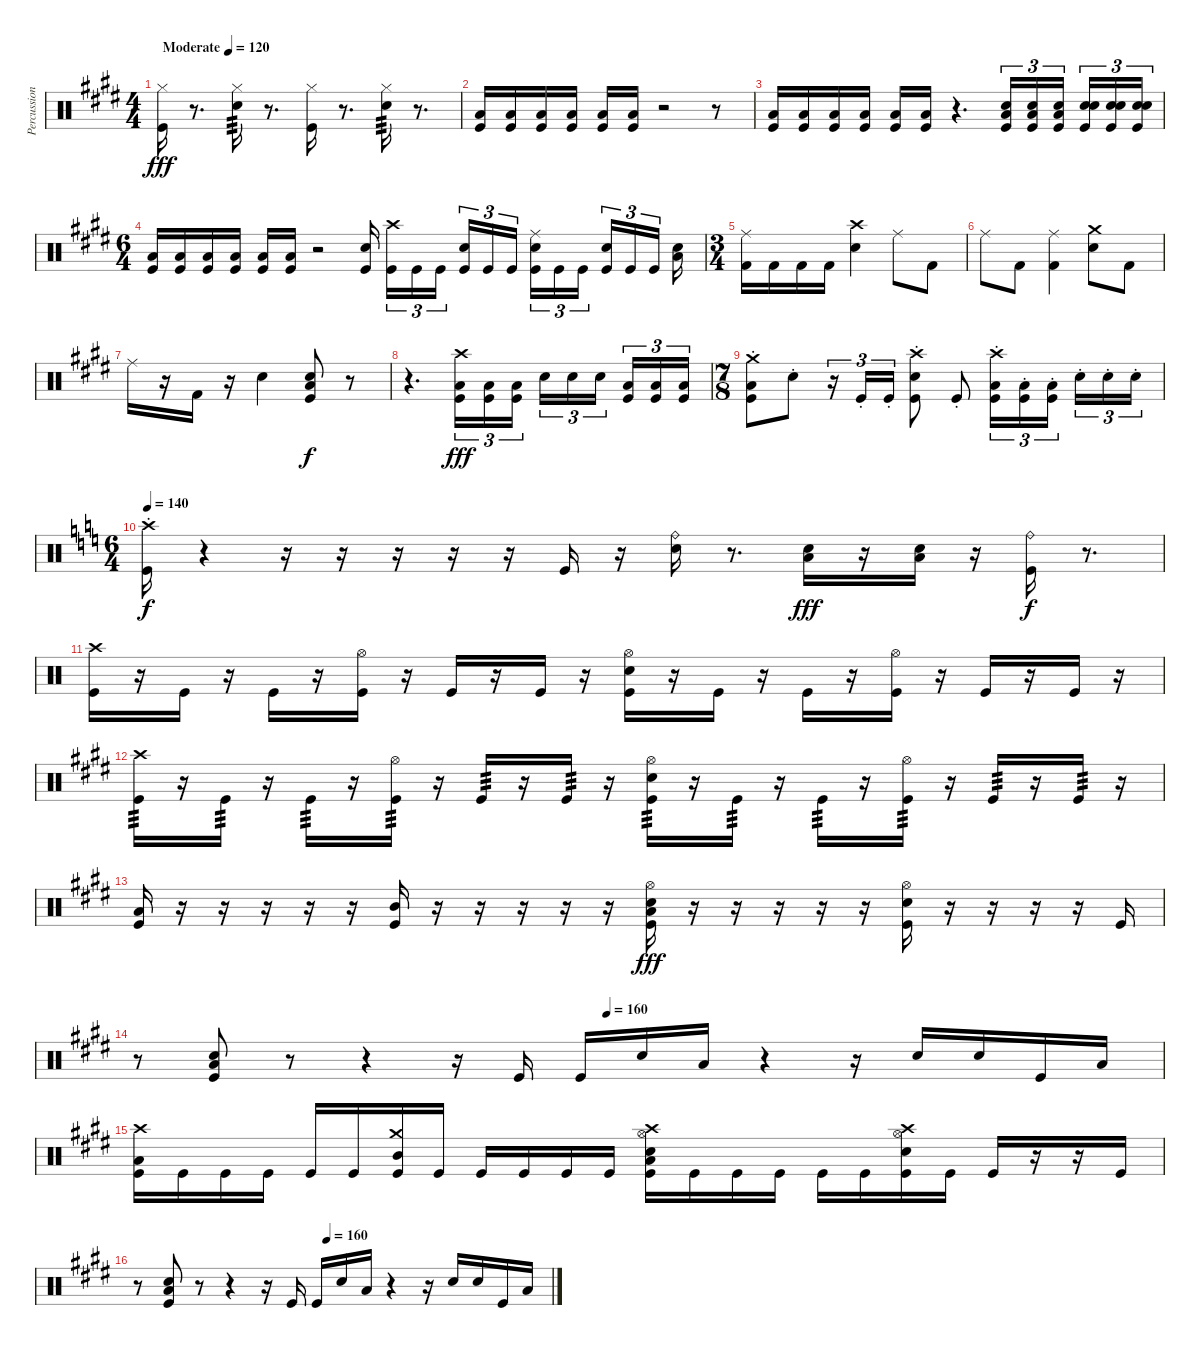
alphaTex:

\track ("Percussion" "Percussion") {instrument percussion}
\staff {score}
\articulation defaults
\ts (4 4)
\tempo (120 "Moderate")
\clef neutral
\ks e
("Hi-Hat (closed)" "Kick (hit)").16{dy fff} r.8{d} ("Hi-Hat (closed)" "Electric Snare (hit)").16{tp 3} r.8{d} ("Hi-Hat (closed)" "Kick (hit)").16 r.8{d} ("Hi-Hat (closed)" "Electric Snare (hit)").16{tp 3} r.8{d} |
("Kick (hit)" "Low Floor Tom (hit)").16 ("Kick (hit)" "Low Floor Tom (hit)").16 ("Kick (hit)" "Low Floor Tom (hit)").16 ("Kick (hit)" "Low Floor Tom (hit)").16 ("Kick (hit)" "Low Floor Tom (hit)").16 ("Kick (hit)" "Low Floor Tom (hit)").16 r.2 r.8 |
("Kick (hit)" "Low Floor Tom (hit)").16 ("Kick (hit)" "Low Floor Tom (hit)").16 ("Kick (hit)" "Low Floor Tom (hit)").16 ("Kick (hit)" "Low Floor Tom (hit)").16 ("Kick (hit)" "Low Floor Tom (hit)").16 ("Kick (hit)" "Low Floor Tom (hit)").16 r.4{d} ("Kick (hit)" "Low Floor Tom (hit)" "Electric Snare (hit)").16{tu (3 2)} ("Kick (hit)" "Low Floor Tom (hit)" "Electric Snare (hit)").16{tu (3 2)} ("Kick (hit)" "Low Floor Tom (hit)" "Electric Snare (hit)").16{tu (3 2) beam splitsecondary} ("Electric Snare (hit)" "Electric Snare (hit)" "Kick (hit)").16{tu (3 2)} ("Electric Snare (hit)" "Electric Snare (hit)" "Kick (hit)").16{tu (3 2)} ("Electric Snare (hit)" "Electric Snare (hit)" "Kick (hit)").16{tu (3 2)} |
\ts (6 4)
("Kick (hit)" "Low Floor Tom (hit)").16 ("Kick (hit)" "Low Floor Tom (hit)").16 ("Kick (hit)" "Low Floor Tom (hit)").16 ("Kick (hit)" "Low Floor Tom (hit)").16 ("Kick (hit)" "Low Floor Tom (hit)").16 ("Kick (hit)" "Low Floor Tom (hit)").16 r.2 ("Kick (hit)" "Electric Snare (hit)").16{beam splitsecondary} ("Kick (hit)" "Crash high (hit)").16{tu (3 2)} "Kick (hit)".16{tu (3 2)} "Kick (hit)".16{tu (3 2) beam splitsecondary} ("Kick (hit)" "Electric Snare (hit)").16{tu (3 2)} "Kick (hit)".16{tu (3 2)} "Kick (hit)".16{tu (3 2) beam splitsecondary} ("Kick (hit)" "Electric Snare (hit)" "Ride (middle)").16{tu (3 2)} "Kick (hit)".16{tu (3 2)} "Kick (hit)".16{tu (3 2) beam splitsecondary} ("Kick (hit)" "Electric Snare (hit)").16{tu (3 2)} "Kick (hit)".16{tu (3 2)} "Kick (hit)".16{tu (3 2) beam splitsecondary} ("Low Floor Tom (hit)" "Electric Snare (hit)").16 |
\ts (3 4)
("Ride (middle)" "Kick (hit) 2").16 "Kick (hit) 2".16 "Kick (hit) 2".16 "Kick (hit) 2".16 ("Crash high (hit)" "Electric Snare (hit)").4 "Ride (middle)".8 "Kick (hit) 2".8 |
"Ride (middle)".8 "Kick (hit) 2".8 ("Ride (middle)" "Kick (hit) 2").4 ("Crash medium (hit)" "Electric Snare (hit)").8 "Kick (hit) 2".8 |
"Ride (middle)".16 r.16 "Kick (hit) 2".16 r.16 "Electric Snare (hit)".4 ("Kick (hit)" "Low Floor Tom (hit)" "Electric Snare (hit)").8{dy f} r.8 |
r.4{d} ("Crash high (hit)" "Low Floor Tom (hit)" "Kick (hit)").16{tu (3 2) dy fff} ("Low Floor Tom (hit)" "Kick (hit)").16{tu (3 2)} ("Low Floor Tom (hit)" "Kick (hit)").16{tu (3 2)} "Electric Snare (hit)".16{tu (3 2)} "Electric Snare (hit)".16{tu (3 2)} "Electric Snare (hit)".16{tu (3 2) beam splitsecondary} ("Low Floor Tom (hit)" "Kick (hit)").16{tu (3 2)} ("Low Floor Tom (hit)" "Kick (hit)").16{tu (3 2)} ("Low Floor Tom (hit)" "Kick (hit)").16{tu (3 2)} |
\ts (7 8)
("Crash medium (hit)"{st} "Kick (hit)"{st} "Low Floor Tom (hit)"{st}).8 "Electric Snare (hit)"{st}.8 r.16{tu (3 2)} "Kick (hit)"{st}.16{tu (3 2)} "Kick (hit)"{st}.16{tu (3 2)} ("Electric Snare (hit)"{st} "Crash high (hit)"{st} "Kick (hit)"{st}).8 "Kick (hit)"{st}.8 ("Crash high (hit)"{st} "Kick (hit)"{st} "Low Floor Tom (hit)"{st}).16{tu (3 2)} ("Kick (hit)"{st} "Low Floor Tom (hit)"{st}).16{tu (3 2)} ("Kick (hit)"{st} "Low Floor Tom (hit)"{st}).16{tu (3 2)} "Electric Snare (hit)"{st}.16{tu (3 2)} "Electric Snare (hit)"{st}.16{tu (3 2)} "Electric Snare (hit)"{st}.16{tu (3 2)} |
\ts (6 4)
\tempo 140
\ks c
("Kick (hit)"{st} "Crash high (hit)"{st}).16{dy f} r.4 r.16 r.16 r.16 r.16 r.16 "Kick (hit)".16 r.16 ("Snare (hit) 2" "Ride (bell)").16 r.8{d} ("Electric Snare (hit)" "Low Floor Tom (hit)").16{dy fff} r.16 ("Electric Snare (hit)" "Low Tom (hit)").16 r.16 ("Kick (hit)" "Ride (bell)").16{dy f} r.8{d} |
("Kick (hit)" "Crash high (hit)").16 r.16 "Kick (hit)".16 r.16 "Kick (hit)".16 r.16 ("Kick (hit)" "Hi-Hat (open)").16 r.16 "Kick (hit)".16 r.16 "Kick (hit)".16 r.16 ("Kick (hit)" "Snare (hit) 2" "Hi-Hat (open)").16 r.16 "Kick (hit)".16 r.16 "Kick (hit)".16 r.16 ("Kick (hit)" "Hi-Hat (open)").16 r.16 "Kick (hit)".16 r.16 "Kick (hit)".16 r.16 |
\ks e
("Kick (hit)" "Crash high (hit)").16{tp 3} r.16 "Kick (hit)".16{tp 3} r.16 "Kick (hit)".16{tp 3} r.16 ("Kick (hit)" "Hi-Hat (open)").16{tp 3} r.16 "Kick (hit)".16{tp 3} r.16 "Kick (hit)".16{tp 3} r.16 ("Kick (hit)" "Snare (hit) 2" "Hi-Hat (open)").16{tp 3} r.16 "Kick (hit)".16{tp 3} r.16 "Kick (hit)".16{tp 3} r.16 ("Kick (hit)" "Hi-Hat (open)").16{tp 3} r.16 "Kick (hit)".16{tp 3} r.16 "Kick (hit)".16{tp 3} r.16 |
("Kick (hit)" "Low Floor Tom (hit)").16 r.16 r.16 r.16 r.16 r.16 ("Kick (hit)" "Mid Tom (hit)").16 r.16 r.16 r.16 r.16 r.16 ("Kick (hit)" "Snare (hit) 2" "Hi-Hat (open)" "Low Floor Tom (hit)").16{dy fff} r.16 r.16 r.16 r.16 r.16 ("Kick (hit)" "Hi-Hat (open)" "Electric Snare (hit)").16 r.16 r.16 r.16 r.16 "Kick (hit)".16 |
\tempo (160 0.4583333333333333)
r.8 ("Kick (hit)" "Low Floor Tom (hit)" "Electric Snare (hit)").8 r.8 r.4 r.16 "Kick (hit)".16 "Kick (hit)".16 "Electric Snare (hit)".16 "Low Floor Tom (hit)".16 r.4 r.16 "Electric Snare (hit)".16 "Electric Snare (hit)".16 "Kick (hit)".16 "Low Floor Tom (hit)".16 |
("Kick (hit)" "Low Floor Tom (hit)" "Crash high (hit)").16 "Kick (hit)".16 "Kick (hit)".16 "Kick (hit)".16 "Kick (hit)".16 "Kick (hit)".16 ("Kick (hit)" "Mid Tom (hit)" "Crash medium (hit)").16 "Kick (hit)".16 "Kick (hit)".16 "Kick (hit)".16 "Kick (hit)".16 "Kick (hit)".16 ("Kick (hit)" "Snare (hit) 2" "Hi-Hat (open)" "Low Floor Tom (hit)" "Crash high (hit)").16 "Kick (hit)".16 "Kick (hit)".16 "Kick (hit)".16 "Kick (hit)".16 "Kick (hit)".16 ("Kick (hit)" "Hi-Hat (open)" "Electric Snare (hit)" "Crash high (hit)").16 "Kick (hit)".16 "Kick (hit)".16 r.16 r.16 "Kick (hit)".16 |
\tempo (160 0.4583333333333333)
r.8 ("Kick (hit)" "Low Floor Tom (hit)" "Electric Snare (hit)").8 r.8 r.4 r.16 "Kick (hit)".16 "Kick (hit)".16 "Electric Snare (hit)".16 "Low Floor Tom (hit)".16 r.4 r.16 "Electric Snare (hit)".16 "Electric Snare (hit)".16 "Kick (hit)".16 "Low Floor Tom (hit)".16
